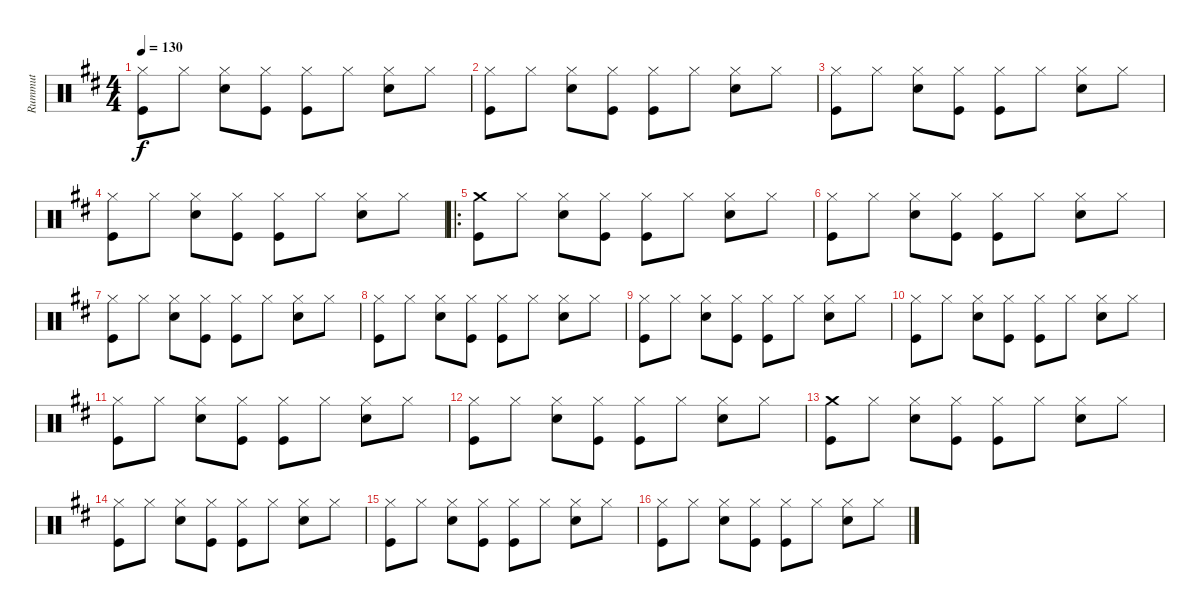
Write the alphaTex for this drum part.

\track ("Rummut" "Rummut") {instrument percussion}
\staff {score}
\articulation defaults
\ts (4 4)
\tempo 130
\clef neutral
\ks d
("Hi-Hat (closed)" "Kick (hit)").8{dy f} "Hi-Hat (closed)".8 ("Hi-Hat (closed)" "Electric Snare (hit)").8 ("Hi-Hat (closed)" "Kick (hit)").8 ("Hi-Hat (closed)" "Kick (hit)").8 "Hi-Hat (closed)".8 ("Hi-Hat (closed)" "Electric Snare (hit)").8 "Hi-Hat (closed)".8 |
("Hi-Hat (closed)" "Kick (hit)").8 "Hi-Hat (closed)".8 ("Hi-Hat (closed)" "Electric Snare (hit)").8 ("Hi-Hat (closed)" "Kick (hit)").8 ("Hi-Hat (closed)" "Kick (hit)").8 "Hi-Hat (closed)".8 ("Hi-Hat (closed)" "Electric Snare (hit)").8 "Hi-Hat (closed)".8 |
("Hi-Hat (closed)" "Kick (hit)").8 "Hi-Hat (closed)".8 ("Hi-Hat (closed)" "Electric Snare (hit)").8 ("Hi-Hat (closed)" "Kick (hit)").8 ("Hi-Hat (closed)" "Kick (hit)").8 "Hi-Hat (closed)".8 ("Hi-Hat (closed)" "Electric Snare (hit)").8 "Hi-Hat (closed)".8 |
("Hi-Hat (closed)" "Kick (hit)").8 "Hi-Hat (closed)".8 ("Hi-Hat (closed)" "Electric Snare (hit)").8 ("Hi-Hat (closed)" "Kick (hit)").8 ("Hi-Hat (closed)" "Kick (hit)").8 "Hi-Hat (closed)".8 ("Hi-Hat (closed)" "Electric Snare (hit)").8 "Hi-Hat (closed)".8 |
\ro
("Crash medium (hit)" "Kick (hit)").8 "Hi-Hat (closed)".8 ("Hi-Hat (closed)" "Electric Snare (hit)").8 ("Hi-Hat (closed)" "Kick (hit)").8 ("Hi-Hat (closed)" "Kick (hit)").8 "Hi-Hat (closed)".8 ("Hi-Hat (closed)" "Electric Snare (hit)").8 "Hi-Hat (closed)".8 |
("Hi-Hat (closed)" "Kick (hit)").8 "Hi-Hat (closed)".8 ("Hi-Hat (closed)" "Electric Snare (hit)").8 ("Hi-Hat (closed)" "Kick (hit)").8 ("Hi-Hat (closed)" "Kick (hit)").8 "Hi-Hat (closed)".8 ("Hi-Hat (closed)" "Electric Snare (hit)").8 "Hi-Hat (closed)".8 |
("Hi-Hat (closed)" "Kick (hit)").8 "Hi-Hat (closed)".8 ("Hi-Hat (closed)" "Electric Snare (hit)").8 ("Hi-Hat (closed)" "Kick (hit)").8 ("Hi-Hat (closed)" "Kick (hit)").8 "Hi-Hat (closed)".8 ("Hi-Hat (closed)" "Electric Snare (hit)").8 "Hi-Hat (closed)".8 |
("Hi-Hat (closed)" "Kick (hit)").8 "Hi-Hat (closed)".8 ("Hi-Hat (closed)" "Electric Snare (hit)").8 ("Hi-Hat (closed)" "Kick (hit)").8 ("Hi-Hat (closed)" "Kick (hit)").8 "Hi-Hat (closed)".8 ("Hi-Hat (closed)" "Electric Snare (hit)").8 "Hi-Hat (closed)".8 |
("Hi-Hat (closed)" "Kick (hit)").8 "Hi-Hat (closed)".8 ("Hi-Hat (closed)" "Electric Snare (hit)").8 ("Hi-Hat (closed)" "Kick (hit)").8 ("Hi-Hat (closed)" "Kick (hit)").8 "Hi-Hat (closed)".8 ("Hi-Hat (closed)" "Electric Snare (hit)").8 "Hi-Hat (closed)".8 |
("Hi-Hat (closed)" "Kick (hit)").8 "Hi-Hat (closed)".8 ("Hi-Hat (closed)" "Electric Snare (hit)").8 ("Hi-Hat (closed)" "Kick (hit)").8 ("Hi-Hat (closed)" "Kick (hit)").8 "Hi-Hat (closed)".8 ("Hi-Hat (closed)" "Electric Snare (hit)").8 "Hi-Hat (closed)".8 |
("Hi-Hat (closed)" "Kick (hit)").8 "Hi-Hat (closed)".8 ("Hi-Hat (closed)" "Electric Snare (hit)").8 ("Hi-Hat (closed)" "Kick (hit)").8 ("Hi-Hat (closed)" "Kick (hit)").8 "Hi-Hat (closed)".8 ("Hi-Hat (closed)" "Electric Snare (hit)").8 "Hi-Hat (closed)".8 |
("Hi-Hat (closed)" "Kick (hit)").8 "Hi-Hat (closed)".8 ("Hi-Hat (closed)" "Electric Snare (hit)").8 ("Hi-Hat (closed)" "Kick (hit)").8 ("Hi-Hat (closed)" "Kick (hit)").8 "Hi-Hat (closed)".8 ("Hi-Hat (closed)" "Electric Snare (hit)").8 "Hi-Hat (closed)".8 |
("Crash medium (hit)" "Kick (hit)").8 "Hi-Hat (closed)".8 ("Hi-Hat (closed)" "Electric Snare (hit)").8 ("Hi-Hat (closed)" "Kick (hit)").8 ("Hi-Hat (closed)" "Kick (hit)").8 "Hi-Hat (closed)".8 ("Hi-Hat (closed)" "Electric Snare (hit)").8 "Hi-Hat (closed)".8 |
("Hi-Hat (closed)" "Kick (hit)").8 "Hi-Hat (closed)".8 ("Hi-Hat (closed)" "Electric Snare (hit)").8 ("Hi-Hat (closed)" "Kick (hit)").8 ("Hi-Hat (closed)" "Kick (hit)").8 "Hi-Hat (closed)".8 ("Hi-Hat (closed)" "Electric Snare (hit)").8 "Hi-Hat (closed)".8 |
("Hi-Hat (closed)" "Kick (hit)").8 "Hi-Hat (closed)".8 ("Hi-Hat (closed)" "Electric Snare (hit)").8 ("Hi-Hat (closed)" "Kick (hit)").8 ("Hi-Hat (closed)" "Kick (hit)").8 "Hi-Hat (closed)".8 ("Hi-Hat (closed)" "Electric Snare (hit)").8 "Hi-Hat (closed)".8 |
("Hi-Hat (closed)" "Kick (hit)").8 "Hi-Hat (closed)".8 ("Hi-Hat (closed)" "Electric Snare (hit)").8 ("Hi-Hat (closed)" "Kick (hit)").8 ("Hi-Hat (closed)" "Kick (hit)").8 "Hi-Hat (closed)".8 ("Hi-Hat (closed)" "Electric Snare (hit)").8 "Hi-Hat (closed)".8
